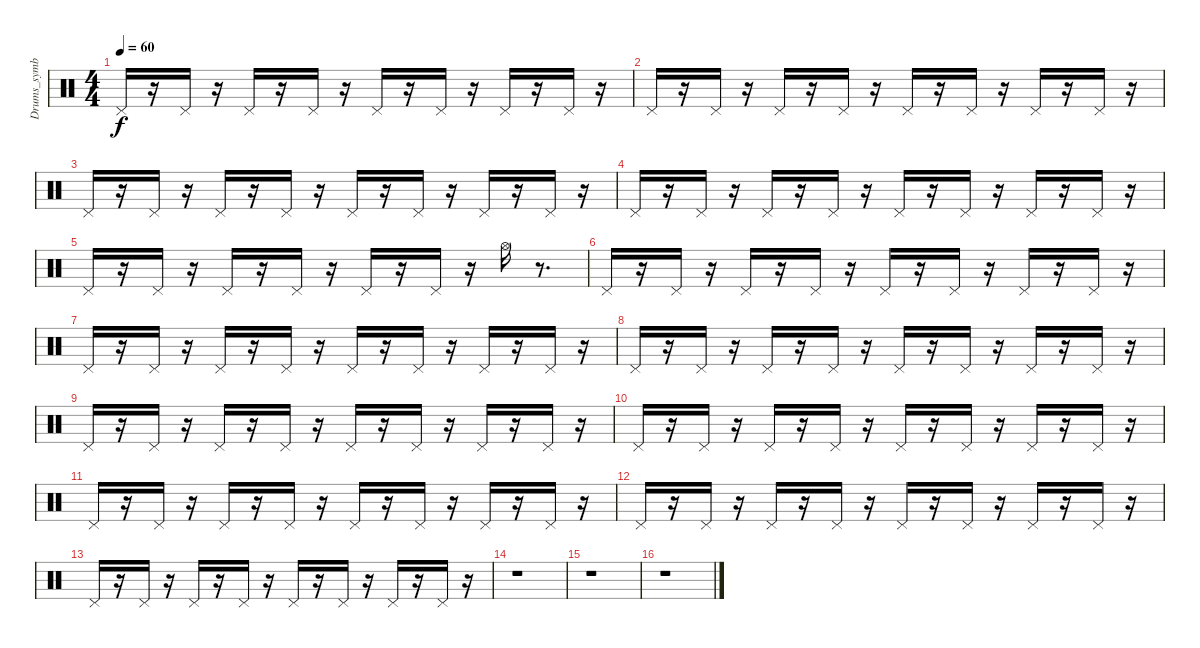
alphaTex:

\track ("Drums_symbal" "Drums_symb") {instrument percussion}
\staff {score}
\articulation defaults
\ts (4 4)
\tempo 60
\clef neutral
\ks c "Pedal Hi-Hat (hit)".16{dy f}
r.16 "Pedal Hi-Hat (hit)".16 r.16 "Pedal Hi-Hat (hit)".16 r.16 "Pedal Hi-Hat (hit)".16 r.16 "Pedal Hi-Hat (hit)".16 r.16 "Pedal Hi-Hat (hit)".16 r.16 "Pedal Hi-Hat (hit)".16 r.16 "Pedal Hi-Hat (hit)".16 r.16 |
"Pedal Hi-Hat (hit)".16 r.16 "Pedal Hi-Hat (hit)".16 r.16 "Pedal Hi-Hat (hit)".16 r.16 "Pedal Hi-Hat (hit)".16 r.16 "Pedal Hi-Hat (hit)".16 r.16 "Pedal Hi-Hat (hit)".16 r.16 "Pedal Hi-Hat (hit)".16 r.16 "Pedal Hi-Hat (hit)".16 r.16 |
"Pedal Hi-Hat (hit)".16 r.16 "Pedal Hi-Hat (hit)".16 r.16 "Pedal Hi-Hat (hit)".16 r.16 "Pedal Hi-Hat (hit)".16 r.16 "Pedal Hi-Hat (hit)".16 r.16 "Pedal Hi-Hat (hit)".16 r.16 "Pedal Hi-Hat (hit)".16 r.16 "Pedal Hi-Hat (hit)".16 r.16 |
"Pedal Hi-Hat (hit)".16 r.16 "Pedal Hi-Hat (hit)".16 r.16 "Pedal Hi-Hat (hit)".16 r.16 "Pedal Hi-Hat (hit)".16 r.16 "Pedal Hi-Hat (hit)".16 r.16 "Pedal Hi-Hat (hit)".16 r.16 "Pedal Hi-Hat (hit)".16 r.16 "Pedal Hi-Hat (hit)".16 r.16 |
"Pedal Hi-Hat (hit)".16 r.16 "Pedal Hi-Hat (hit)".16 r.16 "Pedal Hi-Hat (hit)".16 r.16 "Pedal Hi-Hat (hit)".16 r.16 "Pedal Hi-Hat (hit)".16 r.16 "Pedal Hi-Hat (hit)".16 r.16 "Hi-Hat (open)".16 r.8{d} |
"Pedal Hi-Hat (hit)".16 r.16 "Pedal Hi-Hat (hit)".16 r.16 "Pedal Hi-Hat (hit)".16 r.16 "Pedal Hi-Hat (hit)".16 r.16 "Pedal Hi-Hat (hit)".16 r.16 "Pedal Hi-Hat (hit)".16 r.16 "Pedal Hi-Hat (hit)".16 r.16 "Pedal Hi-Hat (hit)".16 r.16 |
"Pedal Hi-Hat (hit)".16 r.16 "Pedal Hi-Hat (hit)".16 r.16 "Pedal Hi-Hat (hit)".16 r.16 "Pedal Hi-Hat (hit)".16 r.16 "Pedal Hi-Hat (hit)".16 r.16 "Pedal Hi-Hat (hit)".16 r.16 "Pedal Hi-Hat (hit)".16 r.16 "Pedal Hi-Hat (hit)".16 r.16 |
"Pedal Hi-Hat (hit)".16 r.16 "Pedal Hi-Hat (hit)".16 r.16 "Pedal Hi-Hat (hit)".16 r.16 "Pedal Hi-Hat (hit)".16 r.16 "Pedal Hi-Hat (hit)".16 r.16 "Pedal Hi-Hat (hit)".16 r.16 "Pedal Hi-Hat (hit)".16 r.16 "Pedal Hi-Hat (hit)".16 r.16 |
"Pedal Hi-Hat (hit)".16 r.16 "Pedal Hi-Hat (hit)".16 r.16 "Pedal Hi-Hat (hit)".16 r.16 "Pedal Hi-Hat (hit)".16 r.16 "Pedal Hi-Hat (hit)".16 r.16 "Pedal Hi-Hat (hit)".16 r.16 "Pedal Hi-Hat (hit)".16 r.16 "Pedal Hi-Hat (hit)".16 r.16 |
"Pedal Hi-Hat (hit)".16 r.16 "Pedal Hi-Hat (hit)".16 r.16 "Pedal Hi-Hat (hit)".16 r.16 "Pedal Hi-Hat (hit)".16 r.16 "Pedal Hi-Hat (hit)".16 r.16 "Pedal Hi-Hat (hit)".16 r.16 "Pedal Hi-Hat (hit)".16 r.16 "Pedal Hi-Hat (hit)".16 r.16 |
"Pedal Hi-Hat (hit)".16 r.16 "Pedal Hi-Hat (hit)".16 r.16 "Pedal Hi-Hat (hit)".16 r.16 "Pedal Hi-Hat (hit)".16 r.16 "Pedal Hi-Hat (hit)".16 r.16 "Pedal Hi-Hat (hit)".16 r.16 "Pedal Hi-Hat (hit)".16 r.16 "Pedal Hi-Hat (hit)".16 r.16 |
"Pedal Hi-Hat (hit)".16 r.16 "Pedal Hi-Hat (hit)".16 r.16 "Pedal Hi-Hat (hit)".16 r.16 "Pedal Hi-Hat (hit)".16 r.16 "Pedal Hi-Hat (hit)".16 r.16 "Pedal Hi-Hat (hit)".16 r.16 "Pedal Hi-Hat (hit)".16 r.16 "Pedal Hi-Hat (hit)".16 r.16 |
"Pedal Hi-Hat (hit)".16 r.16 "Pedal Hi-Hat (hit)".16 r.16 "Pedal Hi-Hat (hit)".16 r.16 "Pedal Hi-Hat (hit)".16 r.16 "Pedal Hi-Hat (hit)".16 r.16 "Pedal Hi-Hat (hit)".16 r.16 "Pedal Hi-Hat (hit)".16 r.16 "Pedal Hi-Hat (hit)".16 r.16 |
r.1 |
r.1 |
r.1
